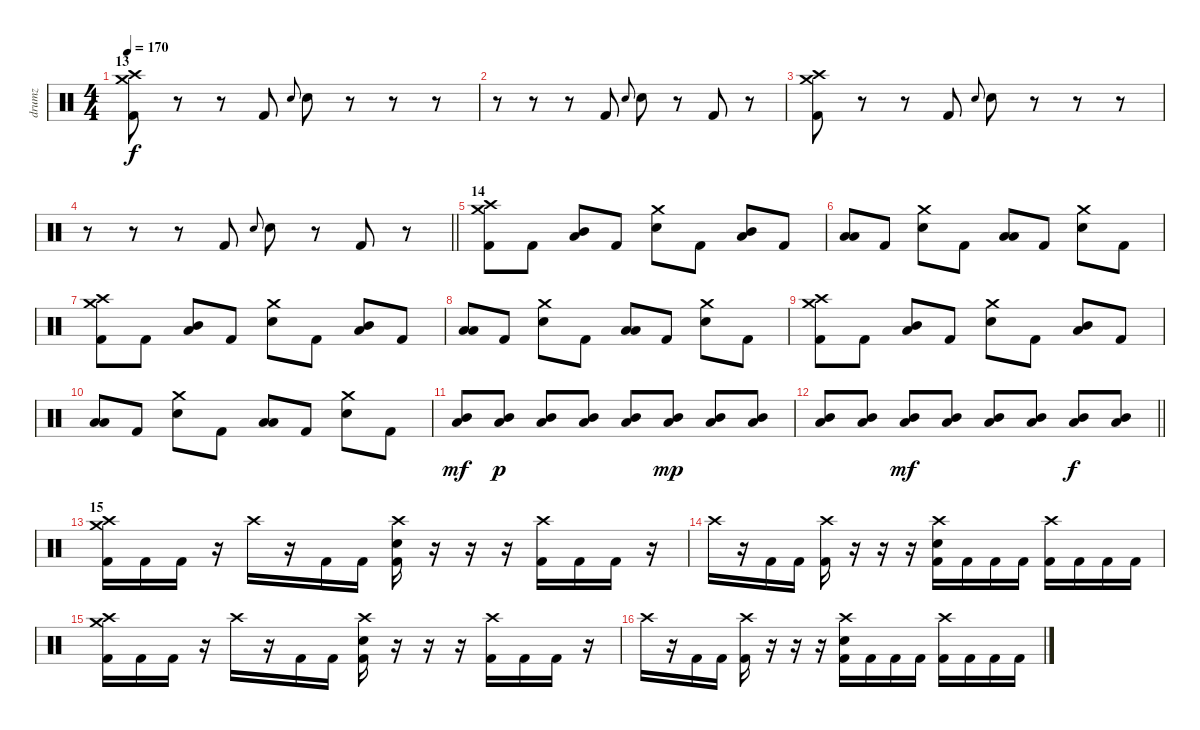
\track ("drumz" "drumz") {instrument percussion}
\staff {score}
\articulation defaults
\ts (4 4)
\section ("" "13")
\tempo 170
\clef neutral
\ks c
("Crash medium (hit)" "Crash high (hit)" "Kick (hit) 2").8{dy f} r.8 r.8 "Kick (hit) 2".8 "Electric Snare (hit)".8{gr onbeat} "Electric Snare (hit)".8 r.8 r.8 r.8 |
r.8 r.8 r.8 "Kick (hit) 2".8 "Electric Snare (hit)".8{gr onbeat} "Electric Snare (hit)".8 r.8 "Kick (hit) 2".8 r.8 |
("Crash high (hit)" "Crash medium (hit)" "Kick (hit) 2").8 r.8 r.8 "Kick (hit) 2".8 "Electric Snare (hit)".8{gr onbeat} "Electric Snare (hit)".8 r.8 r.8 r.8 |
\barLineRight lightlight
r.8 r.8 r.8 "Kick (hit) 2".8 "Electric Snare (hit)".8{gr onbeat} "Electric Snare (hit)".8 r.8 "Kick (hit) 2".8 r.8 |
\section ("" "14")
("Crash medium (hit)" "Crash high (hit)" "Kick (hit) 2").8 "Kick (hit) 2".8 ("Mid Tom (hit)" "Low Floor Tom (hit)").8 "Kick (hit) 2".8 ("Crash medium (hit)" "Electric Snare (hit)").8 "Kick (hit) 2".8 ("Mid Tom (hit)" "Low Floor Tom (hit)").8 "Kick (hit) 2".8 |
("Low Tom (hit)" "Low Floor Tom (hit)").8 "Kick (hit) 2".8 ("Crash medium (hit)" "Electric Snare (hit)").8 "Kick (hit) 2".8 ("Low Tom (hit)" "Low Floor Tom (hit)").8 "Kick (hit) 2".8 ("Crash medium (hit)" "Electric Snare (hit)").8 "Kick (hit) 2".8 |
("Crash medium (hit)" "Crash high (hit)" "Kick (hit) 2").8 "Kick (hit) 2".8 ("Mid Tom (hit)" "Low Floor Tom (hit)").8 "Kick (hit) 2".8 ("Crash medium (hit)" "Electric Snare (hit)").8 "Kick (hit) 2".8 ("Mid Tom (hit)" "Low Floor Tom (hit)").8 "Kick (hit) 2".8 |
("Low Tom (hit)" "Low Floor Tom (hit)").8 "Kick (hit) 2".8 ("Crash medium (hit)" "Electric Snare (hit)").8 "Kick (hit) 2".8 ("Low Tom (hit)" "Low Floor Tom (hit)").8 "Kick (hit) 2".8 ("Crash medium (hit)" "Electric Snare (hit)").8 "Kick (hit) 2".8 |
("Crash medium (hit)" "Crash high (hit)" "Kick (hit) 2").8 "Kick (hit) 2".8 ("Mid Tom (hit)" "Low Floor Tom (hit)").8 "Kick (hit) 2".8 ("Crash medium (hit)" "Electric Snare (hit)").8 "Kick (hit) 2".8 ("Mid Tom (hit)" "Low Floor Tom (hit)").8 "Kick (hit) 2".8 |
("Low Tom (hit)" "Low Floor Tom (hit)").8 "Kick (hit) 2".8 ("Crash medium (hit)" "Electric Snare (hit)").8 "Kick (hit) 2".8 ("Low Tom (hit)" "Low Floor Tom (hit)").8 "Kick (hit) 2".8 ("Crash medium (hit)" "Electric Snare (hit)").8 "Kick (hit) 2".8 |
("Mid Tom (hit)" "Low Floor Tom (hit)").8{dy mf} ("Mid Tom (hit)" "Low Floor Tom (hit)").8{dy p} ("Mid Tom (hit)" "Low Floor Tom (hit)").8 ("Mid Tom (hit)" "Low Floor Tom (hit)").8 ("Mid Tom (hit)" "Low Floor Tom (hit)").8 ("Mid Tom (hit)" "Low Floor Tom (hit)").8{dy mp} ("Mid Tom (hit)" "Low Floor Tom (hit)").8 ("Mid Tom (hit)" "Low Floor Tom (hit)").8 |
\barLineRight lightlight
("Mid Tom (hit)" "Low Floor Tom (hit)").8 ("Mid Tom (hit)" "Low Floor Tom (hit)").8 ("Mid Tom (hit)" "Low Floor Tom (hit)").8{dy mf} ("Mid Tom (hit)" "Low Floor Tom (hit)").8 ("Mid Tom (hit)" "Low Floor Tom (hit)").8 ("Mid Tom (hit)" "Low Floor Tom (hit)").8 ("Mid Tom (hit)" "Low Floor Tom (hit)").8{dy f} ("Mid Tom (hit)" "Low Floor Tom (hit)").8 |
\section ("" "15")
("Crash high (hit)" "Crash medium (hit)" "Kick (hit) 2").16 "Kick (hit) 2".16 "Kick (hit) 2".16 r.16 "Crash high (hit)".16 r.16 "Kick (hit) 2".16 "Kick (hit) 2".16 ("Crash high (hit)" "Electric Snare (hit)" "Kick (hit) 2").16 r.16 r.16 r.16 ("Crash high (hit)" "Kick (hit) 2").16 "Kick (hit) 2".16 "Kick (hit) 2".16 r.16 |
"Crash high (hit)".16 r.16 "Kick (hit) 2".16 "Kick (hit) 2".16 ("Crash high (hit)" "Kick (hit) 2").16 r.16 r.16 r.16 ("Crash high (hit)" "Electric Snare (hit)" "Kick (hit) 2").16 "Kick (hit) 2".16 "Kick (hit) 2".16 "Kick (hit) 2".16 ("Crash high (hit)" "Kick (hit) 2").16 "Kick (hit) 2".16 "Kick (hit) 2".16 "Kick (hit) 2".16 |
("Crash high (hit)" "Crash medium (hit)" "Kick (hit) 2").16 "Kick (hit) 2".16 "Kick (hit) 2".16 r.16 "Crash high (hit)".16 r.16 "Kick (hit) 2".16 "Kick (hit) 2".16 ("Crash high (hit)" "Electric Snare (hit)" "Kick (hit) 2").16 r.16 r.16 r.16 ("Crash high (hit)" "Kick (hit) 2").16 "Kick (hit) 2".16 "Kick (hit) 2".16 r.16 |
"Crash high (hit)".16 r.16 "Kick (hit) 2".16 "Kick (hit) 2".16 ("Crash high (hit)" "Kick (hit) 2").16 r.16 r.16 r.16 ("Crash high (hit)" "Electric Snare (hit)" "Kick (hit) 2").16 "Kick (hit) 2".16 "Kick (hit) 2".16 "Kick (hit) 2".16 ("Crash high (hit)" "Kick (hit) 2").16 "Kick (hit) 2".16 "Kick (hit) 2".16 "Kick (hit) 2".16
